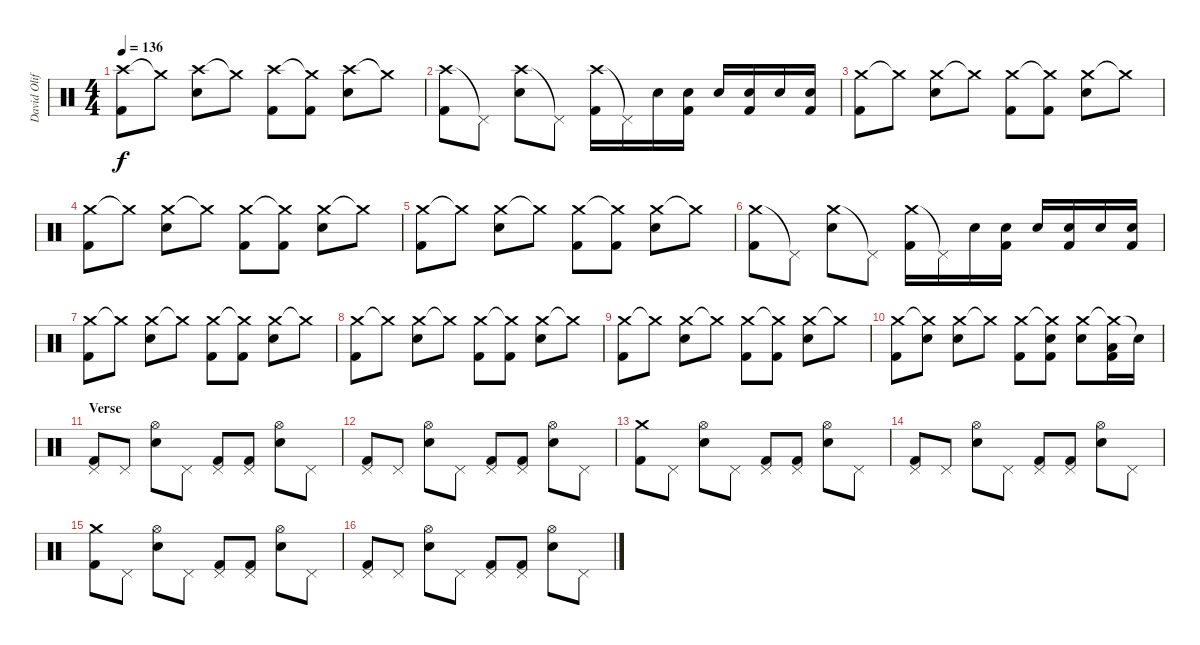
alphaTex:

\track ("David Oliffe" "David Olif") {instrument percussion}
\staff {score}
\articulation defaults
\ts (4 4)
\tempo 136
\clef neutral
\ks c
("Crash high (hit)" "Kick (hit) 2").8{dy f} "Crash medium (hit)"{t}.8 ("Crash high (hit)" "Electric Snare (hit)").8 "Crash medium (hit)"{t}.8 ("Crash high (hit)" "Kick (hit) 2").8 ("Crash medium (hit)"{t} "Kick (hit) 2").8 ("Crash high (hit)" "Electric Snare (hit)").8 "Crash medium (hit)"{t}.8 |
("Crash high (hit)" "Kick (hit) 2").8 "Pedal Hi-Hat (hit)"{t}.8 ("Crash high (hit)" "Electric Snare (hit)").8 "Pedal Hi-Hat (hit)"{t}.8 ("Crash high (hit)" "Kick (hit) 2").16 "Pedal Hi-Hat (hit)"{t}.16 "Electric Snare (hit)".16 ("Electric Snare (hit)" "Kick (hit) 2").16 "Electric Snare (hit)".16 ("Electric Snare (hit)" "Kick (hit) 2").16 "Electric Snare (hit)".16 ("Electric Snare (hit)" "Kick (hit) 2").16 |
("Crash medium (hit)" "Kick (hit) 2").8 "Crash medium (hit)"{t}.8 ("Crash medium (hit)" "Electric Snare (hit)").8 "Crash medium (hit)"{t}.8 ("Crash medium (hit)" "Kick (hit) 2").8 ("Crash medium (hit)"{t} "Kick (hit) 2").8 ("Crash medium (hit)" "Electric Snare (hit)").8 "Crash medium (hit)"{t}.8 |
("Crash medium (hit)" "Kick (hit) 2").8 "Crash medium (hit)"{t}.8 ("Crash medium (hit)" "Electric Snare (hit)").8 "Crash medium (hit)"{t}.8 ("Crash medium (hit)" "Kick (hit) 2").8 ("Crash medium (hit)"{t} "Kick (hit) 2").8 ("Crash medium (hit)" "Electric Snare (hit)").8 "Crash medium (hit)"{t}.8 |
("Crash medium (hit)" "Kick (hit) 2").8 "Crash medium (hit)"{t}.8 ("Crash medium (hit)" "Electric Snare (hit)").8 "Crash medium (hit)"{t}.8 ("Crash medium (hit)" "Kick (hit) 2").8 ("Crash medium (hit)"{t} "Kick (hit) 2").8 ("Crash medium (hit)" "Electric Snare (hit)").8 "Crash medium (hit)"{t}.8 |
("Crash medium (hit)" "Kick (hit) 2").8 "Pedal Hi-Hat (hit)"{t}.8 ("Crash medium (hit)" "Electric Snare (hit)").8 "Pedal Hi-Hat (hit)"{t}.8 ("Crash medium (hit)" "Kick (hit) 2").16 "Pedal Hi-Hat (hit)"{t}.16 "Electric Snare (hit)".16 ("Electric Snare (hit)" "Kick (hit) 2").16 "Electric Snare (hit)".16 ("Electric Snare (hit)" "Kick (hit) 2").16 "Electric Snare (hit)".16 ("Electric Snare (hit)" "Kick (hit) 2").16 |
("Crash medium (hit)" "Kick (hit) 2").8 "Crash medium (hit)"{t}.8 ("Crash medium (hit)" "Electric Snare (hit)").8 "Crash medium (hit)"{t}.8 ("Crash medium (hit)" "Kick (hit) 2").8 ("Crash medium (hit)"{t} "Kick (hit) 2").8 ("Crash medium (hit)" "Electric Snare (hit)").8 "Crash medium (hit)"{t}.8 |
("Crash medium (hit)" "Kick (hit) 2").8 "Crash medium (hit)"{t}.8 ("Crash medium (hit)" "Electric Snare (hit)").8 "Crash medium (hit)"{t}.8 ("Crash medium (hit)" "Kick (hit) 2").8 ("Crash medium (hit)"{t} "Kick (hit) 2").8 ("Crash medium (hit)" "Electric Snare (hit)").8 "Crash medium (hit)"{t}.8 |
("Crash medium (hit)" "Kick (hit) 2").8 "Crash medium (hit)"{t}.8 ("Crash medium (hit)" "Electric Snare (hit)").8 "Crash medium (hit)"{t}.8 ("Crash medium (hit)" "Kick (hit) 2").8 ("Crash medium (hit)"{t} "Kick (hit) 2").8 ("Crash medium (hit)" "Electric Snare (hit)").8 "Crash medium (hit)"{t}.8 |
("Crash medium (hit)" "Kick (hit) 2").8 ("Crash medium (hit)"{t} "Electric Snare (hit)").8 ("Crash medium (hit)" "Electric Snare (hit)").8 "Crash medium (hit)"{t}.8 ("Crash medium (hit)" "Kick (hit) 2").8 ("Crash medium (hit)"{t} "Electric Snare (hit)" "Kick (hit) 2").8 ("Crash medium (hit)" "Electric Snare (hit)").8 ("Crash medium (hit)"{t} "Low Tom (hit)" "Kick (hit) 2").16 "Snare (hit)"{t}.16 |
\section ("" "Verse")
("Pedal Hi-Hat (hit)" "Kick (hit) 2").8 "Pedal Hi-Hat (hit)".8 ("Hi-Hat (open)" "Electric Snare (hit)").8 "Pedal Hi-Hat (hit)".8 ("Pedal Hi-Hat (hit)" "Kick (hit) 2").8 ("Pedal Hi-Hat (hit)" "Kick (hit) 2").8 ("Hi-Hat (open)" "Electric Snare (hit)").8 "Pedal Hi-Hat (hit)".8 |
("Pedal Hi-Hat (hit)" "Kick (hit) 2").8 "Pedal Hi-Hat (hit)".8 ("Hi-Hat (open)" "Electric Snare (hit)").8 "Pedal Hi-Hat (hit)".8 ("Pedal Hi-Hat (hit)" "Kick (hit) 2").8 ("Pedal Hi-Hat (hit)" "Kick (hit) 2").8 ("Hi-Hat (open)" "Electric Snare (hit)").8 "Pedal Hi-Hat (hit)".8 |
("Crash medium (hit)" "Kick (hit) 2").8 "Pedal Hi-Hat (hit)".8 ("Hi-Hat (open)" "Electric Snare (hit)").8 "Pedal Hi-Hat (hit)".8 ("Pedal Hi-Hat (hit)" "Kick (hit) 2").8 ("Pedal Hi-Hat (hit)" "Kick (hit) 2").8 ("Hi-Hat (open)" "Electric Snare (hit)").8 "Pedal Hi-Hat (hit)".8 |
("Pedal Hi-Hat (hit)" "Kick (hit) 2").8 "Pedal Hi-Hat (hit)".8 ("Hi-Hat (open)" "Electric Snare (hit)").8 "Pedal Hi-Hat (hit)".8 ("Pedal Hi-Hat (hit)" "Kick (hit) 2").8 ("Pedal Hi-Hat (hit)" "Kick (hit) 2").8 ("Hi-Hat (open)" "Electric Snare (hit)").8 "Pedal Hi-Hat (hit)".8 |
("Crash medium (hit)" "Kick (hit) 2").8 "Pedal Hi-Hat (hit)".8 ("Hi-Hat (open)" "Electric Snare (hit)").8 "Pedal Hi-Hat (hit)".8 ("Pedal Hi-Hat (hit)" "Kick (hit) 2").8 ("Pedal Hi-Hat (hit)" "Kick (hit) 2").8 ("Hi-Hat (open)" "Electric Snare (hit)").8 "Pedal Hi-Hat (hit)".8 |
("Pedal Hi-Hat (hit)" "Kick (hit) 2").8 "Pedal Hi-Hat (hit)".8 ("Hi-Hat (open)" "Electric Snare (hit)").8 "Pedal Hi-Hat (hit)".8 ("Pedal Hi-Hat (hit)" "Kick (hit) 2").8 ("Pedal Hi-Hat (hit)" "Kick (hit) 2").8 ("Hi-Hat (open)" "Electric Snare (hit)").8 "Pedal Hi-Hat (hit)".8
